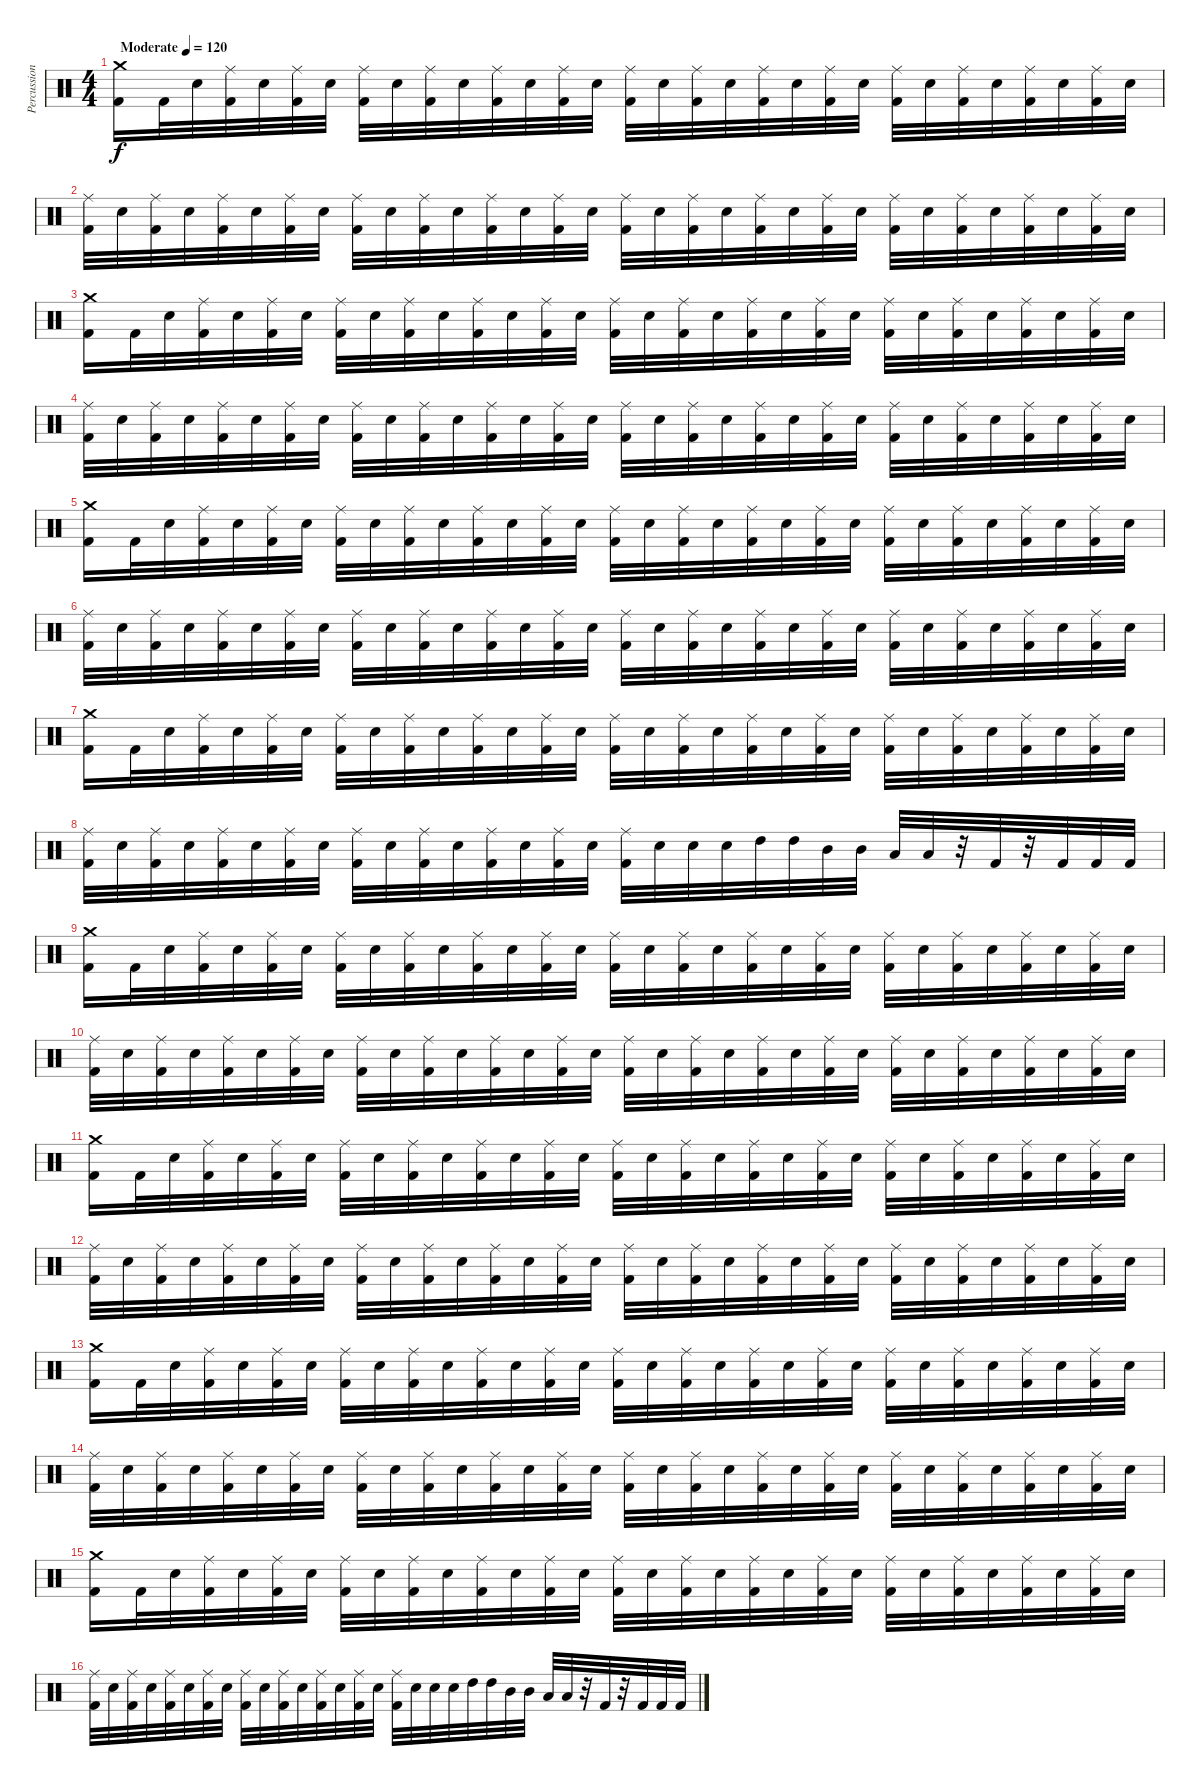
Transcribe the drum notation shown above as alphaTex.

\track ("Percussions" "Percussion") {instrument percussion}
\staff {score}
\articulation defaults
\ts (4 4)
\tempo (120 "Moderate")
\clef neutral
\ks c
("Kick (hit) 2" "Crash medium (hit)").16{dy f} "Kick (hit) 2".32 "Electric Snare (hit)".32 ("Kick (hit) 2" "Ride (middle)").32 "Electric Snare (hit)".32 ("Kick (hit) 2" "Ride (middle)").32 "Electric Snare (hit)".32 ("Kick (hit) 2" "Ride (middle)").32 "Electric Snare (hit)".32 ("Kick (hit) 2" "Ride (middle)").32 "Electric Snare (hit)".32 ("Kick (hit) 2" "Ride (middle)").32 "Electric Snare (hit)".32 ("Kick (hit) 2" "Ride (middle)").32 "Electric Snare (hit)".32 ("Kick (hit) 2" "Ride (middle)").32 "Electric Snare (hit)".32 ("Kick (hit) 2" "Ride (middle)").32 "Electric Snare (hit)".32 ("Kick (hit) 2" "Ride (middle)").32 "Electric Snare (hit)".32 ("Kick (hit) 2" "Ride (middle)").32 "Electric Snare (hit)".32 ("Kick (hit) 2" "Ride (middle)").32 "Electric Snare (hit)".32 ("Kick (hit) 2" "Ride (middle)").32 "Electric Snare (hit)".32 ("Kick (hit) 2" "Ride (middle)").32 "Electric Snare (hit)".32 ("Kick (hit) 2" "Ride (middle)").32 "Electric Snare (hit)".32 |
("Kick (hit) 2" "Ride (middle)").32 "Electric Snare (hit)".32 ("Kick (hit) 2" "Ride (middle)").32 "Electric Snare (hit)".32 ("Kick (hit) 2" "Ride (middle)").32 "Electric Snare (hit)".32 ("Kick (hit) 2" "Ride (middle)").32 "Electric Snare (hit)".32 ("Kick (hit) 2" "Ride (middle)").32 "Electric Snare (hit)".32 ("Kick (hit) 2" "Ride (middle)").32 "Electric Snare (hit)".32 ("Kick (hit) 2" "Ride (middle)").32 "Electric Snare (hit)".32 ("Kick (hit) 2" "Ride (middle)").32 "Electric Snare (hit)".32 ("Kick (hit) 2" "Ride (middle)").32 "Electric Snare (hit)".32 ("Kick (hit) 2" "Ride (middle)").32 "Electric Snare (hit)".32 ("Kick (hit) 2" "Ride (middle)").32 "Electric Snare (hit)".32 ("Kick (hit) 2" "Ride (middle)").32 "Electric Snare (hit)".32 ("Kick (hit) 2" "Ride (middle)").32 "Electric Snare (hit)".32 ("Kick (hit) 2" "Ride (middle)").32 "Electric Snare (hit)".32 ("Kick (hit) 2" "Ride (middle)").32 "Electric Snare (hit)".32 ("Kick (hit) 2" "Ride (middle)").32 "Electric Snare (hit)".32 |
("Kick (hit) 2" "Crash medium (hit)").16 "Kick (hit) 2".32 "Electric Snare (hit)".32 ("Kick (hit) 2" "Ride (middle)").32 "Electric Snare (hit)".32 ("Kick (hit) 2" "Ride (middle)").32 "Electric Snare (hit)".32 ("Kick (hit) 2" "Ride (middle)").32 "Electric Snare (hit)".32 ("Kick (hit) 2" "Ride (middle)").32 "Electric Snare (hit)".32 ("Kick (hit) 2" "Ride (middle)").32 "Electric Snare (hit)".32 ("Kick (hit) 2" "Ride (middle)").32 "Electric Snare (hit)".32 ("Kick (hit) 2" "Ride (middle)").32 "Electric Snare (hit)".32 ("Kick (hit) 2" "Ride (middle)").32 "Electric Snare (hit)".32 ("Kick (hit) 2" "Ride (middle)").32 "Electric Snare (hit)".32 ("Kick (hit) 2" "Ride (middle)").32 "Electric Snare (hit)".32 ("Kick (hit) 2" "Ride (middle)").32 "Electric Snare (hit)".32 ("Kick (hit) 2" "Ride (middle)").32 "Electric Snare (hit)".32 ("Kick (hit) 2" "Ride (middle)").32 "Electric Snare (hit)".32 ("Kick (hit) 2" "Ride (middle)").32 "Electric Snare (hit)".32 |
("Kick (hit) 2" "Ride (middle)").32 "Electric Snare (hit)".32 ("Kick (hit) 2" "Ride (middle)").32 "Electric Snare (hit)".32 ("Kick (hit) 2" "Ride (middle)").32 "Electric Snare (hit)".32 ("Kick (hit) 2" "Ride (middle)").32 "Electric Snare (hit)".32 ("Kick (hit) 2" "Ride (middle)").32 "Electric Snare (hit)".32 ("Kick (hit) 2" "Ride (middle)").32 "Electric Snare (hit)".32 ("Kick (hit) 2" "Ride (middle)").32 "Electric Snare (hit)".32 ("Kick (hit) 2" "Ride (middle)").32 "Electric Snare (hit)".32 ("Kick (hit) 2" "Ride (middle)").32 "Electric Snare (hit)".32 ("Kick (hit) 2" "Ride (middle)").32 "Electric Snare (hit)".32 ("Kick (hit) 2" "Ride (middle)").32 "Electric Snare (hit)".32 ("Kick (hit) 2" "Ride (middle)").32 "Electric Snare (hit)".32 ("Kick (hit) 2" "Ride (middle)").32 "Electric Snare (hit)".32 ("Kick (hit) 2" "Ride (middle)").32 "Electric Snare (hit)".32 ("Kick (hit) 2" "Ride (middle)").32 "Electric Snare (hit)".32 ("Kick (hit) 2" "Ride (middle)").32 "Electric Snare (hit)".32 |
("Kick (hit) 2" "Crash medium (hit)").16 "Kick (hit) 2".32 "Electric Snare (hit)".32 ("Kick (hit) 2" "Ride (middle)").32 "Electric Snare (hit)".32 ("Kick (hit) 2" "Ride (middle)").32 "Electric Snare (hit)".32 ("Kick (hit) 2" "Ride (middle)").32 "Electric Snare (hit)".32 ("Kick (hit) 2" "Ride (middle)").32 "Electric Snare (hit)".32 ("Kick (hit) 2" "Ride (middle)").32 "Electric Snare (hit)".32 ("Kick (hit) 2" "Ride (middle)").32 "Electric Snare (hit)".32 ("Kick (hit) 2" "Ride (middle)").32 "Electric Snare (hit)".32 ("Kick (hit) 2" "Ride (middle)").32 "Electric Snare (hit)".32 ("Kick (hit) 2" "Ride (middle)").32 "Electric Snare (hit)".32 ("Kick (hit) 2" "Ride (middle)").32 "Electric Snare (hit)".32 ("Kick (hit) 2" "Ride (middle)").32 "Electric Snare (hit)".32 ("Kick (hit) 2" "Ride (middle)").32 "Electric Snare (hit)".32 ("Kick (hit) 2" "Ride (middle)").32 "Electric Snare (hit)".32 ("Kick (hit) 2" "Ride (middle)").32 "Electric Snare (hit)".32 |
("Kick (hit) 2" "Ride (middle)").32 "Electric Snare (hit)".32 ("Kick (hit) 2" "Ride (middle)").32 "Electric Snare (hit)".32 ("Kick (hit) 2" "Ride (middle)").32 "Electric Snare (hit)".32 ("Kick (hit) 2" "Ride (middle)").32 "Electric Snare (hit)".32 ("Kick (hit) 2" "Ride (middle)").32 "Electric Snare (hit)".32 ("Kick (hit) 2" "Ride (middle)").32 "Electric Snare (hit)".32 ("Kick (hit) 2" "Ride (middle)").32 "Electric Snare (hit)".32 ("Kick (hit) 2" "Ride (middle)").32 "Electric Snare (hit)".32 ("Kick (hit) 2" "Ride (middle)").32 "Electric Snare (hit)".32 ("Kick (hit) 2" "Ride (middle)").32 "Electric Snare (hit)".32 ("Kick (hit) 2" "Ride (middle)").32 "Electric Snare (hit)".32 ("Kick (hit) 2" "Ride (middle)").32 "Electric Snare (hit)".32 ("Kick (hit) 2" "Ride (middle)").32 "Electric Snare (hit)".32 ("Kick (hit) 2" "Ride (middle)").32 "Electric Snare (hit)".32 ("Kick (hit) 2" "Ride (middle)").32 "Electric Snare (hit)".32 ("Kick (hit) 2" "Ride (middle)").32 "Electric Snare (hit)".32 |
("Kick (hit) 2" "Crash medium (hit)").16 "Kick (hit) 2".32 "Electric Snare (hit)".32 ("Kick (hit) 2" "Ride (middle)").32 "Electric Snare (hit)".32 ("Kick (hit) 2" "Ride (middle)").32 "Electric Snare (hit)".32 ("Kick (hit) 2" "Ride (middle)").32 "Electric Snare (hit)".32 ("Kick (hit) 2" "Ride (middle)").32 "Electric Snare (hit)".32 ("Kick (hit) 2" "Ride (middle)").32 "Electric Snare (hit)".32 ("Kick (hit) 2" "Ride (middle)").32 "Electric Snare (hit)".32 ("Kick (hit) 2" "Ride (middle)").32 "Electric Snare (hit)".32 ("Kick (hit) 2" "Ride (middle)").32 "Electric Snare (hit)".32 ("Kick (hit) 2" "Ride (middle)").32 "Electric Snare (hit)".32 ("Kick (hit) 2" "Ride (middle)").32 "Electric Snare (hit)".32 ("Kick (hit) 2" "Ride (middle)").32 "Electric Snare (hit)".32 ("Kick (hit) 2" "Ride (middle)").32 "Electric Snare (hit)".32 ("Kick (hit) 2" "Ride (middle)").32 "Electric Snare (hit)".32 ("Kick (hit) 2" "Ride (middle)").32 "Electric Snare (hit)".32 |
("Kick (hit) 2" "Ride (middle)").32 "Electric Snare (hit)".32 ("Kick (hit) 2" "Ride (middle)").32 "Electric Snare (hit)".32 ("Kick (hit) 2" "Ride (middle)").32 "Electric Snare (hit)".32 ("Kick (hit) 2" "Ride (middle)").32 "Electric Snare (hit)".32 ("Kick (hit) 2" "Ride (middle)").32 "Electric Snare (hit)".32 ("Kick (hit) 2" "Ride (middle)").32 "Electric Snare (hit)".32 ("Kick (hit) 2" "Ride (middle)").32 "Electric Snare (hit)".32 ("Kick (hit) 2" "Ride (middle)").32 "Electric Snare (hit)".32 ("Kick (hit) 2" "Ride (middle)").32 "Electric Snare (hit)".32 "Electric Snare (hit)".32 "Electric Snare (hit)".32 "High Tom (hit)".32 "High Tom (hit)".32 "Mid Tom (hit)".32 "Mid Tom (hit)".32 "Low Tom (hit)".32 "Low Tom (hit)".32 r.32 "Kick (hit) 2".32 r.32 "Kick (hit) 2".32 "Kick (hit) 2".32 "Kick (hit) 2".32 |
("Kick (hit) 2" "Crash medium (hit)").16 "Kick (hit) 2".32 "Electric Snare (hit)".32 ("Kick (hit) 2" "Ride (middle)").32 "Electric Snare (hit)".32 ("Kick (hit) 2" "Ride (middle)").32 "Electric Snare (hit)".32 ("Kick (hit) 2" "Ride (middle)").32 "Electric Snare (hit)".32 ("Kick (hit) 2" "Ride (middle)").32 "Electric Snare (hit)".32 ("Kick (hit) 2" "Ride (middle)").32 "Electric Snare (hit)".32 ("Kick (hit) 2" "Ride (middle)").32 "Electric Snare (hit)".32 ("Kick (hit) 2" "Ride (middle)").32 "Electric Snare (hit)".32 ("Kick (hit) 2" "Ride (middle)").32 "Electric Snare (hit)".32 ("Kick (hit) 2" "Ride (middle)").32 "Electric Snare (hit)".32 ("Kick (hit) 2" "Ride (middle)").32 "Electric Snare (hit)".32 ("Kick (hit) 2" "Ride (middle)").32 "Electric Snare (hit)".32 ("Kick (hit) 2" "Ride (middle)").32 "Electric Snare (hit)".32 ("Kick (hit) 2" "Ride (middle)").32 "Electric Snare (hit)".32 ("Kick (hit) 2" "Ride (middle)").32 "Electric Snare (hit)".32 |
("Kick (hit) 2" "Ride (middle)").32 "Electric Snare (hit)".32 ("Kick (hit) 2" "Ride (middle)").32 "Electric Snare (hit)".32 ("Kick (hit) 2" "Ride (middle)").32 "Electric Snare (hit)".32 ("Kick (hit) 2" "Ride (middle)").32 "Electric Snare (hit)".32 ("Kick (hit) 2" "Ride (middle)").32 "Electric Snare (hit)".32 ("Kick (hit) 2" "Ride (middle)").32 "Electric Snare (hit)".32 ("Kick (hit) 2" "Ride (middle)").32 "Electric Snare (hit)".32 ("Kick (hit) 2" "Ride (middle)").32 "Electric Snare (hit)".32 ("Kick (hit) 2" "Ride (middle)").32 "Electric Snare (hit)".32 ("Kick (hit) 2" "Ride (middle)").32 "Electric Snare (hit)".32 ("Kick (hit) 2" "Ride (middle)").32 "Electric Snare (hit)".32 ("Kick (hit) 2" "Ride (middle)").32 "Electric Snare (hit)".32 ("Kick (hit) 2" "Ride (middle)").32 "Electric Snare (hit)".32 ("Kick (hit) 2" "Ride (middle)").32 "Electric Snare (hit)".32 ("Kick (hit) 2" "Ride (middle)").32 "Electric Snare (hit)".32 ("Kick (hit) 2" "Ride (middle)").32 "Electric Snare (hit)".32 |
("Kick (hit) 2" "Crash medium (hit)").16 "Kick (hit) 2".32 "Electric Snare (hit)".32 ("Kick (hit) 2" "Ride (middle)").32 "Electric Snare (hit)".32 ("Kick (hit) 2" "Ride (middle)").32 "Electric Snare (hit)".32 ("Kick (hit) 2" "Ride (middle)").32 "Electric Snare (hit)".32 ("Kick (hit) 2" "Ride (middle)").32 "Electric Snare (hit)".32 ("Kick (hit) 2" "Ride (middle)").32 "Electric Snare (hit)".32 ("Kick (hit) 2" "Ride (middle)").32 "Electric Snare (hit)".32 ("Kick (hit) 2" "Ride (middle)").32 "Electric Snare (hit)".32 ("Kick (hit) 2" "Ride (middle)").32 "Electric Snare (hit)".32 ("Kick (hit) 2" "Ride (middle)").32 "Electric Snare (hit)".32 ("Kick (hit) 2" "Ride (middle)").32 "Electric Snare (hit)".32 ("Kick (hit) 2" "Ride (middle)").32 "Electric Snare (hit)".32 ("Kick (hit) 2" "Ride (middle)").32 "Electric Snare (hit)".32 ("Kick (hit) 2" "Ride (middle)").32 "Electric Snare (hit)".32 ("Kick (hit) 2" "Ride (middle)").32 "Electric Snare (hit)".32 |
("Kick (hit) 2" "Ride (middle)").32 "Electric Snare (hit)".32 ("Kick (hit) 2" "Ride (middle)").32 "Electric Snare (hit)".32 ("Kick (hit) 2" "Ride (middle)").32 "Electric Snare (hit)".32 ("Kick (hit) 2" "Ride (middle)").32 "Electric Snare (hit)".32 ("Kick (hit) 2" "Ride (middle)").32 "Electric Snare (hit)".32 ("Kick (hit) 2" "Ride (middle)").32 "Electric Snare (hit)".32 ("Kick (hit) 2" "Ride (middle)").32 "Electric Snare (hit)".32 ("Kick (hit) 2" "Ride (middle)").32 "Electric Snare (hit)".32 ("Kick (hit) 2" "Ride (middle)").32 "Electric Snare (hit)".32 ("Kick (hit) 2" "Ride (middle)").32 "Electric Snare (hit)".32 ("Kick (hit) 2" "Ride (middle)").32 "Electric Snare (hit)".32 ("Kick (hit) 2" "Ride (middle)").32 "Electric Snare (hit)".32 ("Kick (hit) 2" "Ride (middle)").32 "Electric Snare (hit)".32 ("Kick (hit) 2" "Ride (middle)").32 "Electric Snare (hit)".32 ("Kick (hit) 2" "Ride (middle)").32 "Electric Snare (hit)".32 ("Kick (hit) 2" "Ride (middle)").32 "Electric Snare (hit)".32 |
("Kick (hit) 2" "Crash medium (hit)").16 "Kick (hit) 2".32 "Electric Snare (hit)".32 ("Kick (hit) 2" "Ride (middle)").32 "Electric Snare (hit)".32 ("Kick (hit) 2" "Ride (middle)").32 "Electric Snare (hit)".32 ("Kick (hit) 2" "Ride (middle)").32 "Electric Snare (hit)".32 ("Kick (hit) 2" "Ride (middle)").32 "Electric Snare (hit)".32 ("Kick (hit) 2" "Ride (middle)").32 "Electric Snare (hit)".32 ("Kick (hit) 2" "Ride (middle)").32 "Electric Snare (hit)".32 ("Kick (hit) 2" "Ride (middle)").32 "Electric Snare (hit)".32 ("Kick (hit) 2" "Ride (middle)").32 "Electric Snare (hit)".32 ("Kick (hit) 2" "Ride (middle)").32 "Electric Snare (hit)".32 ("Kick (hit) 2" "Ride (middle)").32 "Electric Snare (hit)".32 ("Kick (hit) 2" "Ride (middle)").32 "Electric Snare (hit)".32 ("Kick (hit) 2" "Ride (middle)").32 "Electric Snare (hit)".32 ("Kick (hit) 2" "Ride (middle)").32 "Electric Snare (hit)".32 ("Kick (hit) 2" "Ride (middle)").32 "Electric Snare (hit)".32 |
("Kick (hit) 2" "Ride (middle)").32 "Electric Snare (hit)".32 ("Kick (hit) 2" "Ride (middle)").32 "Electric Snare (hit)".32 ("Kick (hit) 2" "Ride (middle)").32 "Electric Snare (hit)".32 ("Kick (hit) 2" "Ride (middle)").32 "Electric Snare (hit)".32 ("Kick (hit) 2" "Ride (middle)").32 "Electric Snare (hit)".32 ("Kick (hit) 2" "Ride (middle)").32 "Electric Snare (hit)".32 ("Kick (hit) 2" "Ride (middle)").32 "Electric Snare (hit)".32 ("Kick (hit) 2" "Ride (middle)").32 "Electric Snare (hit)".32 ("Kick (hit) 2" "Ride (middle)").32 "Electric Snare (hit)".32 ("Kick (hit) 2" "Ride (middle)").32 "Electric Snare (hit)".32 ("Kick (hit) 2" "Ride (middle)").32 "Electric Snare (hit)".32 ("Kick (hit) 2" "Ride (middle)").32 "Electric Snare (hit)".32 ("Kick (hit) 2" "Ride (middle)").32 "Electric Snare (hit)".32 ("Kick (hit) 2" "Ride (middle)").32 "Electric Snare (hit)".32 ("Kick (hit) 2" "Ride (middle)").32 "Electric Snare (hit)".32 ("Kick (hit) 2" "Ride (middle)").32 "Electric Snare (hit)".32 |
("Kick (hit) 2" "Crash medium (hit)").16 "Kick (hit) 2".32 "Electric Snare (hit)".32 ("Kick (hit) 2" "Ride (middle)").32 "Electric Snare (hit)".32 ("Kick (hit) 2" "Ride (middle)").32 "Electric Snare (hit)".32 ("Kick (hit) 2" "Ride (middle)").32 "Electric Snare (hit)".32 ("Kick (hit) 2" "Ride (middle)").32 "Electric Snare (hit)".32 ("Kick (hit) 2" "Ride (middle)").32 "Electric Snare (hit)".32 ("Kick (hit) 2" "Ride (middle)").32 "Electric Snare (hit)".32 ("Kick (hit) 2" "Ride (middle)").32 "Electric Snare (hit)".32 ("Kick (hit) 2" "Ride (middle)").32 "Electric Snare (hit)".32 ("Kick (hit) 2" "Ride (middle)").32 "Electric Snare (hit)".32 ("Kick (hit) 2" "Ride (middle)").32 "Electric Snare (hit)".32 ("Kick (hit) 2" "Ride (middle)").32 "Electric Snare (hit)".32 ("Kick (hit) 2" "Ride (middle)").32 "Electric Snare (hit)".32 ("Kick (hit) 2" "Ride (middle)").32 "Electric Snare (hit)".32 ("Kick (hit) 2" "Ride (middle)").32 "Electric Snare (hit)".32 |
("Kick (hit) 2" "Ride (middle)").32 "Electric Snare (hit)".32 ("Kick (hit) 2" "Ride (middle)").32 "Electric Snare (hit)".32 ("Kick (hit) 2" "Ride (middle)").32 "Electric Snare (hit)".32 ("Kick (hit) 2" "Ride (middle)").32 "Electric Snare (hit)".32 ("Kick (hit) 2" "Ride (middle)").32 "Electric Snare (hit)".32 ("Kick (hit) 2" "Ride (middle)").32 "Electric Snare (hit)".32 ("Kick (hit) 2" "Ride (middle)").32 "Electric Snare (hit)".32 ("Kick (hit) 2" "Ride (middle)").32 "Electric Snare (hit)".32 ("Kick (hit) 2" "Ride (middle)").32 "Electric Snare (hit)".32 "Electric Snare (hit)".32 "Electric Snare (hit)".32 "High Tom (hit)".32 "High Tom (hit)".32 "Mid Tom (hit)".32 "Mid Tom (hit)".32 "Low Tom (hit)".32 "Low Tom (hit)".32 r.32 "Kick (hit) 2".32 r.32 "Kick (hit) 2".32 "Kick (hit) 2".32 "Kick (hit) 2".32
